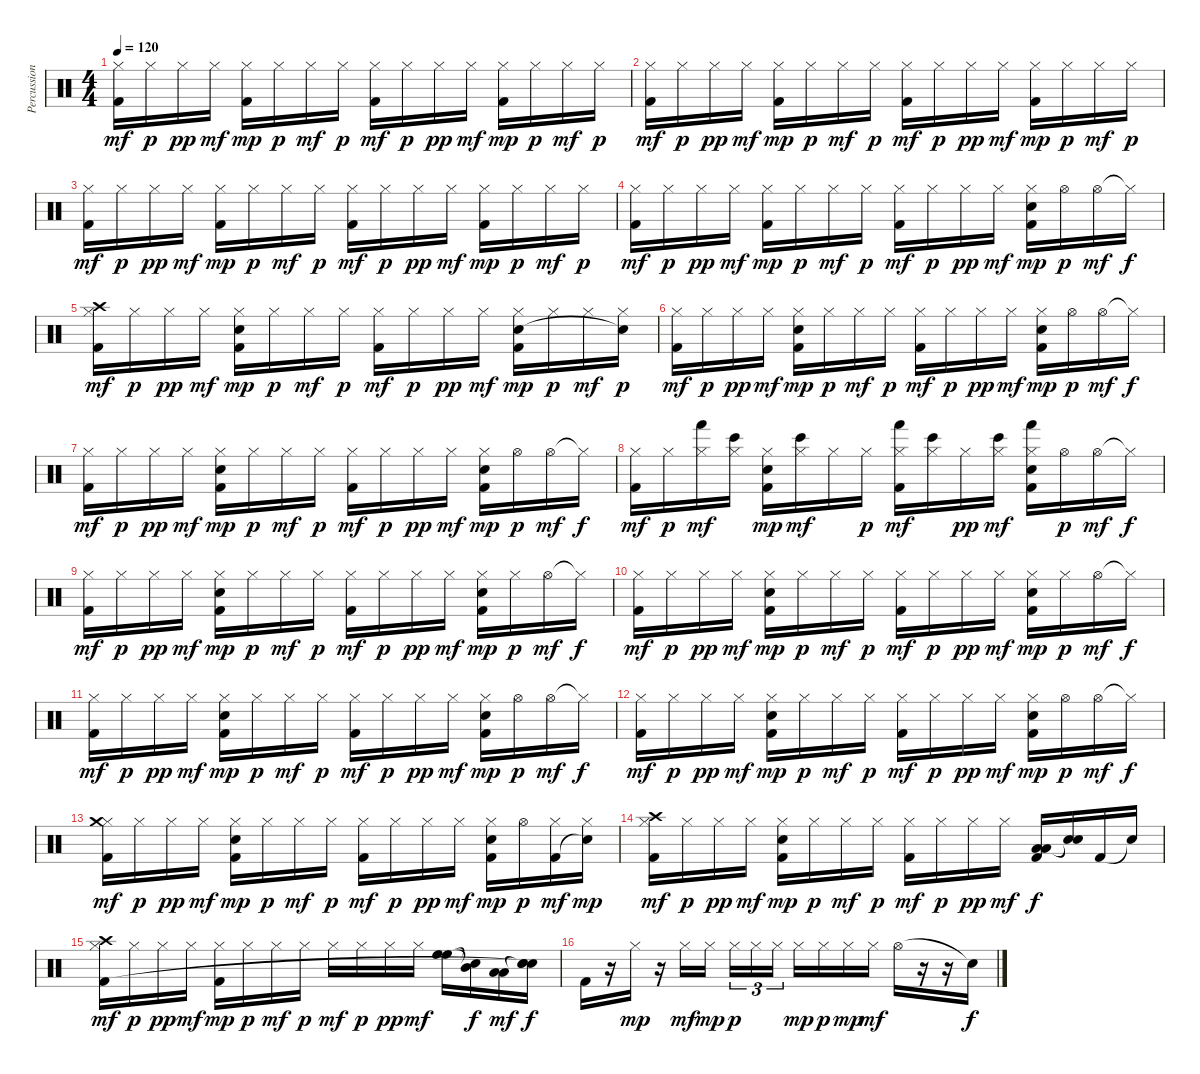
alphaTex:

\track ("Percussion" "Percussion") {instrument percussion}
\staff {score}
\articulation defaults
\ts (4 4)
\tempo 120
\clef neutral
\ks c
("Hi-Hat (closed)" "Kick (hit) 2").16{dy mf} "Hi-Hat (closed)".16{dy p} "Hi-Hat (closed)".16{dy pp} "Hi-Hat (closed)".16{dy mf} ("Hi-Hat (closed)" "Kick (hit) 2").16{dy mp} "Hi-Hat (closed)".16{dy p} "Hi-Hat (closed)".16{dy mf} "Hi-Hat (closed)".16{dy p} ("Hi-Hat (closed)" "Kick (hit) 2").16{dy mf} "Hi-Hat (closed)".16{dy p} "Hi-Hat (closed)".16{dy pp} "Hi-Hat (closed)".16{dy mf} ("Hi-Hat (closed)" "Kick (hit) 2").16{dy mp} "Hi-Hat (closed)".16{dy p} "Hi-Hat (closed)".16{dy mf} "Hi-Hat (closed)".16{dy p} |
("Hi-Hat (closed)" "Kick (hit) 2").16{dy mf} "Hi-Hat (closed)".16{dy p} "Hi-Hat (closed)".16{dy pp} "Hi-Hat (closed)".16{dy mf} ("Hi-Hat (closed)" "Kick (hit) 2").16{dy mp} "Hi-Hat (closed)".16{dy p} "Hi-Hat (closed)".16{dy mf} "Hi-Hat (closed)".16{dy p} ("Hi-Hat (closed)" "Kick (hit) 2").16{dy mf} "Hi-Hat (closed)".16{dy p} "Hi-Hat (closed)".16{dy pp} "Hi-Hat (closed)".16{dy mf} ("Hi-Hat (closed)" "Kick (hit) 2").16{dy mp} "Hi-Hat (closed)".16{dy p} "Hi-Hat (closed)".16{dy mf} "Hi-Hat (closed)".16{dy p} |
("Hi-Hat (closed)" "Kick (hit) 2").16{dy mf} "Hi-Hat (closed)".16{dy p} "Hi-Hat (closed)".16{dy pp} "Hi-Hat (closed)".16{dy mf} ("Hi-Hat (closed)" "Kick (hit) 2").16{dy mp} "Hi-Hat (closed)".16{dy p} "Hi-Hat (closed)".16{dy mf} "Hi-Hat (closed)".16{dy p} ("Hi-Hat (closed)" "Kick (hit) 2").16{dy mf} "Hi-Hat (closed)".16{dy p} "Hi-Hat (closed)".16{dy pp} "Hi-Hat (closed)".16{dy mf} ("Hi-Hat (closed)" "Kick (hit) 2").16{dy mp} "Hi-Hat (closed)".16{dy p} "Hi-Hat (closed)".16{dy mf} "Hi-Hat (closed)".16{dy p} |
("Hi-Hat (closed)" "Kick (hit) 2").16{dy mf} "Hi-Hat (closed)".16{dy p} "Hi-Hat (closed)".16{dy pp} "Hi-Hat (closed)".16{dy mf} ("Hi-Hat (closed)" "Kick (hit) 2").16{dy mp} "Hi-Hat (closed)".16{dy p} "Hi-Hat (closed)".16{dy mf} "Hi-Hat (closed)".16{dy p} ("Hi-Hat (closed)" "Kick (hit) 2").16{dy mf} "Hi-Hat (closed)".16{dy p} "Hi-Hat (closed)".16{dy pp} "Hi-Hat (closed)".16{dy mf} ("Hi-Hat (closed)" "Electric Snare (hit)" "Kick (hit) 2").16{dy mp} "Hi-Hat (open)".16{dy p} "Hi-Hat (open)".16{dy mf} "Hi-Hat (closed)"{t}.16{dy f} |
("Hi-Hat (closed)" "Crash high (hit)" "Kick (hit) 2").16{dy mf} "Hi-Hat (closed)".16{dy p} "Hi-Hat (closed)".16{dy pp} "Hi-Hat (closed)".16{dy mf} ("Hi-Hat (closed)" "Electric Snare (hit)" "Kick (hit) 2").16{dy mp} "Hi-Hat (closed)".16{dy p} "Hi-Hat (closed)".16{dy mf} "Hi-Hat (closed)".16{dy p} ("Hi-Hat (closed)" "Kick (hit) 2").16{dy mf} "Hi-Hat (closed)".16{dy p} "Hi-Hat (closed)".16{dy pp} "Hi-Hat (closed)".16{dy mf} ("Hi-Hat (closed)" "Electric Snare (hit)" "Kick (hit) 2").16{dy mp} "Hi-Hat (closed)".16{dy p} "Hi-Hat (closed)".16{dy mf} ("Hi-Hat (closed)" "Snare (hit)"{t}).16{dy p} |
("Hi-Hat (closed)" "Kick (hit) 2").16{dy mf} "Hi-Hat (closed)".16{dy p} "Hi-Hat (closed)".16{dy pp} "Hi-Hat (closed)".16{dy mf} ("Hi-Hat (closed)" "Electric Snare (hit)" "Kick (hit) 2").16{dy mp} "Hi-Hat (closed)".16{dy p} "Hi-Hat (closed)".16{dy mf} "Hi-Hat (closed)".16{dy p} ("Hi-Hat (closed)" "Kick (hit) 2").16{dy mf} "Hi-Hat (closed)".16{dy p} "Hi-Hat (closed)".16{dy pp} "Hi-Hat (closed)".16{dy mf} ("Hi-Hat (closed)" "Electric Snare (hit)" "Kick (hit) 2").16{dy mp} "Hi-Hat (open)".16{dy p} "Hi-Hat (open)".16{dy mf} "Hi-Hat (closed)"{t}.16{dy f} |
("Hi-Hat (closed)" "Kick (hit) 2").16{dy mf} "Hi-Hat (closed)".16{dy p} "Hi-Hat (closed)".16{dy pp} "Hi-Hat (closed)".16{dy mf} ("Hi-Hat (closed)" "Electric Snare (hit)" "Kick (hit) 2").16{dy mp} "Hi-Hat (closed)".16{dy p} "Hi-Hat (closed)".16{dy mf} "Hi-Hat (closed)".16{dy p} ("Hi-Hat (closed)" "Kick (hit) 2").16{dy mf} "Hi-Hat (closed)".16{dy p} "Hi-Hat (closed)".16{dy pp} "Hi-Hat (closed)".16{dy mf} ("Hi-Hat (closed)" "Electric Snare (hit)" "Kick (hit) 2").16{dy mp} "Hi-Hat (open)".16{dy p} "Hi-Hat (open)".16{dy mf} "Hi-Hat (closed)"{t}.16{dy f} |
("Hi-Hat (closed)" "Kick (hit) 2").16{dy mf} "Hi-Hat (closed)".16{dy p} ("Hi-Hat (closed)" "Hand (hit)").16{dy mf} ("Hi-Hat (closed)" "Bongo High (hit)").16 ("Hi-Hat (closed)" "Electric Snare (hit)" "Kick (hit) 2").16{dy mp} ("Hi-Hat (closed)" "Bongo High (hit)").16{dy mf} "Hi-Hat (closed)".16 "Hi-Hat (closed)".16{dy p} ("Hi-Hat (closed)" "Hand (hit)" "Kick (hit) 2").16{dy mf} ("Hi-Hat (closed)" "Bongo High (hit)").16 "Hi-Hat (closed)".16{dy pp} ("Hi-Hat (closed)" "Bongo High (hit)").16{dy mf} ("Hi-Hat (closed)" "Electric Snare (hit)" "Hand (hit)" "Kick (hit) 2").16 "Hi-Hat (open)".16{dy p} "Hi-Hat (open)".16{dy mf} "Hi-Hat (closed)"{t}.16{dy f} |
("Hi-Hat (closed)" "Kick (hit) 2").16{dy mf} "Hi-Hat (closed)".16{dy p} "Hi-Hat (closed)".16{dy pp} "Hi-Hat (closed)".16{dy mf} ("Hi-Hat (closed)" "Electric Snare (hit)" "Kick (hit) 2").16{dy mp} "Hi-Hat (closed)".16{dy p} "Hi-Hat (closed)".16{dy mf} "Hi-Hat (closed)".16{dy p} ("Hi-Hat (closed)" "Kick (hit) 2").16{dy mf} "Hi-Hat (closed)".16{dy p} "Hi-Hat (closed)".16{dy pp} "Hi-Hat (closed)".16{dy mf} ("Hi-Hat (closed)" "Electric Snare (hit)" "Kick (hit) 2").16{dy mp} "Hi-Hat (closed)".16{dy p} "Hi-Hat (open)".16{dy mf} "Hi-Hat (closed)"{t}.16{dy f} |
("Hi-Hat (closed)" "Kick (hit) 2").16{dy mf} "Hi-Hat (closed)".16{dy p} "Hi-Hat (closed)".16{dy pp} "Hi-Hat (closed)".16{dy mf} ("Hi-Hat (closed)" "Electric Snare (hit)" "Kick (hit) 2").16{dy mp} "Hi-Hat (closed)".16{dy p} "Hi-Hat (closed)".16{dy mf} "Hi-Hat (closed)".16{dy p} ("Hi-Hat (closed)" "Kick (hit) 2").16{dy mf} "Hi-Hat (closed)".16{dy p} "Hi-Hat (closed)".16{dy pp} "Hi-Hat (closed)".16{dy mf} ("Hi-Hat (closed)" "Electric Snare (hit)" "Kick (hit) 2").16{dy mp} "Hi-Hat (closed)".16{dy p} "Hi-Hat (open)".16{dy mf} "Hi-Hat (closed)"{t}.16{dy f} |
("Hi-Hat (closed)" "Kick (hit) 2").16{dy mf} "Hi-Hat (closed)".16{dy p} "Hi-Hat (closed)".16{dy pp} "Hi-Hat (closed)".16{dy mf} ("Hi-Hat (closed)" "Electric Snare (hit)" "Kick (hit) 2").16{dy mp} "Hi-Hat (closed)".16{dy p} "Hi-Hat (closed)".16{dy mf} "Hi-Hat (closed)".16{dy p} ("Hi-Hat (closed)" "Kick (hit) 2").16{dy mf} "Hi-Hat (closed)".16{dy p} "Hi-Hat (closed)".16{dy pp} "Hi-Hat (closed)".16{dy mf} ("Hi-Hat (closed)" "Electric Snare (hit)" "Kick (hit) 2").16{dy mp} "Hi-Hat (open)".16{dy p} "Hi-Hat (open)".16{dy mf} "Hi-Hat (closed)"{t}.16{dy f} |
("Hi-Hat (closed)" "Kick (hit) 2").16{dy mf} "Hi-Hat (closed)".16{dy p} "Hi-Hat (closed)".16{dy pp} "Hi-Hat (closed)".16{dy mf} ("Hi-Hat (closed)" "Electric Snare (hit)" "Kick (hit) 2").16{dy mp} "Hi-Hat (closed)".16{dy p} "Hi-Hat (closed)".16{dy mf} "Hi-Hat (closed)".16{dy p} ("Hi-Hat (closed)" "Kick (hit) 2").16{dy mf} "Hi-Hat (closed)".16{dy p} "Hi-Hat (closed)".16{dy pp} "Hi-Hat (closed)".16{dy mf} ("Hi-Hat (closed)" "Electric Snare (hit)" "Kick (hit) 2").16{dy mp} "Hi-Hat (open)".16{dy p} "Hi-Hat (open)".16{dy mf} "Hi-Hat (closed)"{t}.16{dy f} |
("Hi-Hat (closed)" "Crash medium (hit)" "Kick (hit) 2").16{dy mf} "Hi-Hat (closed)".16{dy p} "Hi-Hat (closed)".16{dy pp} "Hi-Hat (closed)".16{dy mf} ("Hi-Hat (closed)" "Electric Snare (hit)" "Kick (hit) 2").16{dy mp} "Hi-Hat (closed)".16{dy p} "Hi-Hat (closed)".16{dy mf} "Hi-Hat (closed)".16{dy p} ("Hi-Hat (closed)" "Kick (hit) 2").16{dy mf} "Hi-Hat (closed)".16{dy p} "Hi-Hat (closed)".16{dy pp} "Hi-Hat (closed)".16{dy mf} ("Hi-Hat (closed)" "Electric Snare (hit)" "Kick (hit) 2").16{dy mp} "Hi-Hat (open)".16{dy p} ("Hi-Hat (closed)" "Kick (hit) 2").16{dy mf} ("Hi-Hat (closed)" "Snare (hit)"{t}).16{dy mp} |
("Hi-Hat (closed)" "Crash high (hit)" "Kick (hit) 2").16{dy mf} "Hi-Hat (closed)".16{dy p} "Hi-Hat (closed)".16{dy pp} "Hi-Hat (closed)".16{dy mf} ("Hi-Hat (closed)" "Electric Snare (hit)" "Kick (hit) 2").16{dy mp} "Hi-Hat (closed)".16{dy p} "Hi-Hat (closed)".16{dy mf} "Hi-Hat (closed)".16{dy p} ("Hi-Hat (closed)" "Kick (hit) 2").16{dy mf} "Hi-Hat (closed)".16{dy p} "Hi-Hat (closed)".16{dy pp} "Hi-Hat (closed)".16{dy mf} ("Low Floor Tom (hit)" "Low Floor Tom (hit)" "Kick (hit) 2").16{dy f} ("Snare (hit)"{t} "Snare (hit)"{t}).16 "Kick (hit) 2".16 "Snare (hit)"{t}.16 |
("Hi-Hat (closed)" "Crash high (hit)" "Kick (hit) 2").16{dy mf} "Hi-Hat (closed)".16{dy p} "Hi-Hat (closed)".16{dy pp} "Hi-Hat (closed)".16{dy mf} ("Hi-Hat (closed)" "Kick (hit) 2").16{dy mp} "Hi-Hat (closed)".16{dy p} "Hi-Hat (closed)".16{dy mf} "Hi-Hat (closed)".16{dy p} "Hi-Hat (closed)".16{dy mf} "Hi-Hat (closed)".16{dy p} "Hi-Hat (closed)".16{dy pp} "Hi-Hat (closed)".16{dy mf} ("High Floor Tom (hit)" "High Floor Tom (hit)").16 ("Mid Tom (hit)"{t} "Snare (hit)"{t}).16{dy f} ("Low Tom (hit)" "Low Tom (hit)").16{dy mf} ("Snare (hit)"{t} "Snare (hit)"{t} "Snare (hit)"{t}).16{dy f} |
"Kick (hit) 2".16 r.16 "Hi-Hat (closed)".16{dy mp} r.16 "Hi-Hat (closed)".16{dy mf} "Hi-Hat (closed)".16{dy mp beam splitsecondary} "Hi-Hat (closed)".16{tu (3 2) dy p} "Hi-Hat (closed)".16{tu (3 2)} "Hi-Hat (closed)".16{tu (3 2)} "Hi-Hat (closed)".16{dy mp} "Hi-Hat (closed)".16{dy p} "Hi-Hat (closed)".16{dy mp} "Hi-Hat (closed)".16{dy mf} "Hi-Hat (open)".16 r.16 r.16 "Snare (hit)"{t}.16{dy f}
